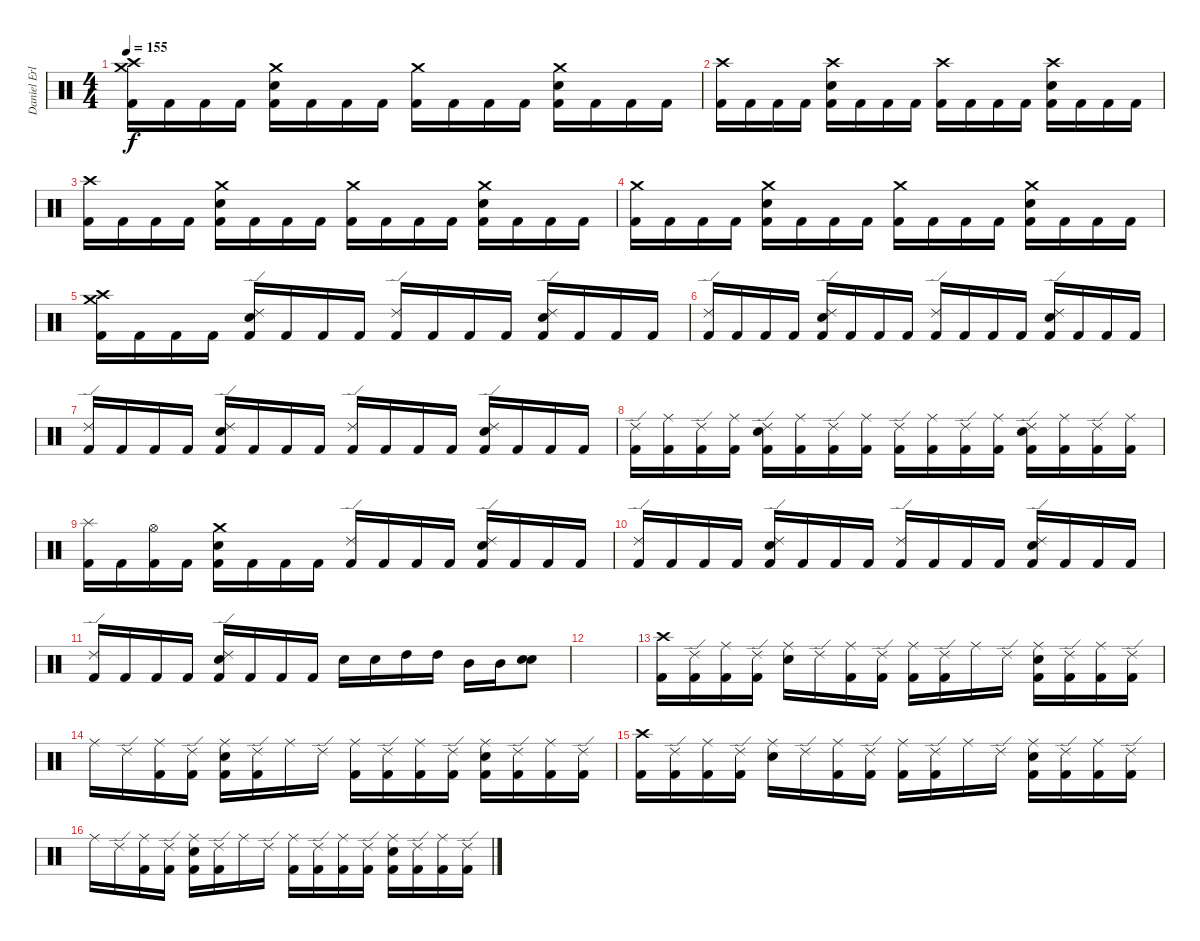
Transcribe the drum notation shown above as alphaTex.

\track ("Daniel Erlandsson" "Daniel Erl") {instrument percussion}
\staff {score}
\articulation defaults
\ts (4 4)
\tempo 155
\clef neutral
\ks c
("Crash high (hit)" "Crash medium (hit)" "Kick (hit) 2").16{dy f} "Kick (hit) 2".16 "Kick (hit) 2".16 "Kick (hit) 2".16 ("Crash medium (hit)" "Snare (hit) 2" "Kick (hit) 2").16 "Kick (hit) 2".16 "Kick (hit) 2".16 "Kick (hit) 2".16 ("Crash medium (hit)" "Kick (hit) 2").16 "Kick (hit) 2".16 "Kick (hit) 2".16 "Kick (hit) 2".16 ("Crash medium (hit)" "Snare (hit) 2" "Kick (hit) 2").16 "Kick (hit) 2".16 "Kick (hit) 2".16 "Kick (hit) 2".16 |
("Crash high (hit)" "Kick (hit) 2").16 "Kick (hit) 2".16 "Kick (hit) 2".16 "Kick (hit) 2".16 ("Crash high (hit)" "Snare (hit) 2" "Kick (hit) 2").16 "Kick (hit) 2".16 "Kick (hit) 2".16 "Kick (hit) 2".16 ("Crash high (hit)" "Kick (hit) 2").16 "Kick (hit) 2".16 "Kick (hit) 2".16 "Kick (hit) 2".16 ("Crash high (hit)" "Snare (hit) 2" "Kick (hit) 2").16 "Kick (hit) 2".16 "Kick (hit) 2".16 "Kick (hit) 2".16 |
("Crash high (hit)" "Kick (hit) 2").16 "Kick (hit) 2".16 "Kick (hit) 2".16 "Kick (hit) 2".16 ("Crash medium (hit)" "Snare (hit) 2" "Kick (hit) 2").16 "Kick (hit) 2".16 "Kick (hit) 2".16 "Kick (hit) 2".16 ("Crash medium (hit)" "Kick (hit) 2").16 "Kick (hit) 2".16 "Kick (hit) 2".16 "Kick (hit) 2".16 ("Crash medium (hit)" "Snare (hit) 2" "Kick (hit) 2").16 "Kick (hit) 2".16 "Kick (hit) 2".16 "Kick (hit) 2".16 |
("Crash medium (hit)" "Kick (hit) 2").16 "Kick (hit) 2".16 "Kick (hit) 2".16 "Kick (hit) 2".16 ("Crash medium (hit)" "Snare (hit) 2" "Kick (hit) 2").16 "Kick (hit) 2".16 "Kick (hit) 2".16 "Kick (hit) 2".16 ("Crash medium (hit)" "Kick (hit) 2").16 "Kick (hit) 2".16 "Kick (hit) 2".16 "Kick (hit) 2".16 ("Crash medium (hit)" "Snare (hit) 2" "Kick (hit) 2").16 "Kick (hit) 2".16 "Kick (hit) 2".16 "Kick (hit) 2".16 |
("Crash high (hit)" "Crash medium (hit)" "Kick (hit) 2").16 "Kick (hit) 2".16 "Kick (hit) 2".16 "Kick (hit) 2".16 ("Ride (edge) 2" "Snare (hit) 2" "Kick (hit) 2").16 "Kick (hit) 2".16 "Kick (hit) 2".16 "Kick (hit) 2".16 ("Ride (edge) 2" "Kick (hit) 2").16 "Kick (hit) 2".16 "Kick (hit) 2".16 "Kick (hit) 2".16 ("Ride (edge) 2" "Snare (hit) 2" "Kick (hit) 2").16 "Kick (hit) 2".16 "Kick (hit) 2".16 "Kick (hit) 2".16 |
("Ride (edge) 2" "Kick (hit) 2").16 "Kick (hit) 2".16 "Kick (hit) 2".16 "Kick (hit) 2".16 ("Ride (edge) 2" "Snare (hit) 2" "Kick (hit) 2").16 "Kick (hit) 2".16 "Kick (hit) 2".16 "Kick (hit) 2".16 ("Ride (edge) 2" "Kick (hit) 2").16 "Kick (hit) 2".16 "Kick (hit) 2".16 "Kick (hit) 2".16 ("Ride (edge) 2" "Snare (hit) 2" "Kick (hit) 2").16 "Kick (hit) 2".16 "Kick (hit) 2".16 "Kick (hit) 2".16 |
("Ride (edge) 2" "Kick (hit) 2").16 "Kick (hit) 2".16 "Kick (hit) 2".16 "Kick (hit) 2".16 ("Ride (edge) 2" "Snare (hit) 2" "Kick (hit) 2").16 "Kick (hit) 2".16 "Kick (hit) 2".16 "Kick (hit) 2".16 ("Ride (edge) 2" "Kick (hit) 2").16 "Kick (hit) 2".16 "Kick (hit) 2".16 "Kick (hit) 2".16 ("Ride (edge) 2" "Snare (hit) 2" "Kick (hit) 2").16 "Kick (hit) 2".16 "Kick (hit) 2".16 "Kick (hit) 2".16 |
("Ride (edge) 2" "Kick (hit) 2").16 ("Ride (middle)" "Kick (hit) 2").16 ("Ride (edge) 2" "Kick (hit) 2").16 ("Ride (middle)" "Kick (hit) 2").16 ("Ride (edge) 2" "Snare (hit) 2" "Kick (hit) 2").16 ("Ride (middle)" "Kick (hit) 2").16 ("Ride (edge) 2" "Kick (hit) 2").16 ("Ride (middle)" "Kick (hit) 2").16 ("Ride (edge) 2" "Kick (hit) 2").16 ("Ride (middle)" "Kick (hit) 2").16 ("Ride (edge) 2" "Kick (hit) 2").16 ("Ride (middle)" "Kick (hit) 2").16 ("Ride (edge) 2" "Snare (hit) 2" "Kick (hit) 2").16 ("Ride (middle)" "Kick (hit) 2").16 ("Ride (edge) 2" "Kick (hit) 2").16 ("Ride (middle)" "Kick (hit) 2").16 |
("Splash (hit)" "Kick (hit) 2").16 "Kick (hit) 2".16 ("Hi-Hat (open)" "Kick (hit) 2").16 "Kick (hit) 2".16 ("Crash medium (hit)" "Snare (hit) 2" "Kick (hit) 2").16 "Kick (hit) 2".16 "Kick (hit) 2".16 "Kick (hit) 2".16 ("Ride (edge) 2" "Kick (hit) 2").16 "Kick (hit) 2".16 "Kick (hit) 2".16 "Kick (hit) 2".16 ("Ride (edge) 2" "Snare (hit) 2" "Kick (hit) 2").16 "Kick (hit) 2".16 "Kick (hit) 2".16 "Kick (hit) 2".16 |
("Ride (edge) 2" "Kick (hit) 2").16 "Kick (hit) 2".16 "Kick (hit) 2".16 "Kick (hit) 2".16 ("Ride (edge) 2" "Snare (hit) 2" "Kick (hit) 2").16 "Kick (hit) 2".16 "Kick (hit) 2".16 "Kick (hit) 2".16 ("Ride (edge) 2" "Kick (hit) 2").16 "Kick (hit) 2".16 "Kick (hit) 2".16 "Kick (hit) 2".16 ("Ride (edge) 2" "Snare (hit) 2" "Kick (hit) 2").16 "Kick (hit) 2".16 "Kick (hit) 2".16 "Kick (hit) 2".16 |
("Ride (edge) 2" "Kick (hit) 2").16 "Kick (hit) 2".16 "Kick (hit) 2".16 "Kick (hit) 2".16 ("Ride (edge) 2" "Snare (hit) 2" "Kick (hit) 2").16 "Kick (hit) 2".16 "Kick (hit) 2".16 "Kick (hit) 2".16 "Snare (hit) 2".16 "Snare (hit) 2".16 "High Tom (hit)".16 "High Tom (hit)".16 "Mid Tom (hit)".16 "Mid Tom (hit)".16 ("Snare (hit) 2" "Snare (hit) 2").8{bu 480} |
|
("Crash high (hit)" "Kick (hit) 2").16 ("Ride (edge) 2" "Kick (hit) 2").16 ("Ride (middle)" "Kick (hit) 2").16 ("Ride (edge) 2" "Kick (hit) 2").16 ("Ride (middle)" "Snare (hit) 2").16 "Ride (edge) 2".16 ("Ride (middle)" "Kick (hit) 2").16 ("Ride (edge) 2" "Kick (hit) 2").16 ("Ride (middle)" "Kick (hit) 2").16 ("Ride (edge) 2" "Kick (hit) 2").16 "Ride (middle)".16 "Ride (edge) 2".16 ("Ride (middle)" "Snare (hit) 2" "Kick (hit) 2").16 ("Ride (edge) 2" "Kick (hit) 2").16 ("Ride (middle)" "Kick (hit) 2").16 ("Ride (edge) 2" "Kick (hit) 2").16 |
"Ride (middle)".16 "Ride (edge) 2".16 ("Ride (middle)" "Kick (hit) 2").16 ("Ride (edge) 2" "Kick (hit) 2").16 ("Ride (middle)" "Snare (hit) 2" "Kick (hit) 2").16 ("Ride (edge) 2" "Kick (hit) 2").16 "Ride (middle)".16 "Ride (edge) 2".16 ("Ride (middle)" "Kick (hit) 2").16 ("Ride (edge) 2" "Kick (hit) 2").16 ("Ride (middle)" "Kick (hit) 2").16 ("Ride (edge) 2" "Kick (hit) 2").16 ("Ride (middle)" "Snare (hit) 2" "Kick (hit) 2").16 ("Ride (edge) 2" "Kick (hit) 2").16 ("Ride (middle)" "Kick (hit) 2").16 ("Ride (edge) 2" "Kick (hit) 2").16 |
("Crash high (hit)" "Kick (hit) 2").16 ("Ride (edge) 2" "Kick (hit) 2").16 ("Ride (middle)" "Kick (hit) 2").16 ("Ride (edge) 2" "Kick (hit) 2").16 ("Ride (middle)" "Snare (hit) 2").16 "Ride (edge) 2".16 ("Ride (middle)" "Kick (hit) 2").16 ("Ride (edge) 2" "Kick (hit) 2").16 ("Ride (middle)" "Kick (hit) 2").16 ("Ride (edge) 2" "Kick (hit) 2").16 "Ride (middle)".16 "Ride (edge) 2".16 ("Ride (middle)" "Snare (hit) 2" "Kick (hit) 2").16 ("Ride (edge) 2" "Kick (hit) 2").16 ("Ride (middle)" "Kick (hit) 2").16 ("Ride (edge) 2" "Kick (hit) 2").16 |
"Ride (middle)".16 "Ride (edge) 2".16 ("Ride (middle)" "Kick (hit) 2").16 ("Ride (edge) 2" "Kick (hit) 2").16 ("Ride (middle)" "Snare (hit) 2" "Kick (hit) 2").16 ("Ride (edge) 2" "Kick (hit) 2").16 "Ride (middle)".16 "Ride (edge) 2".16 ("Ride (middle)" "Kick (hit) 2").16 ("Ride (edge) 2" "Kick (hit) 2").16 ("Ride (middle)" "Kick (hit) 2").16 ("Ride (edge) 2" "Kick (hit) 2").16 ("Ride (middle)" "Snare (hit) 2" "Kick (hit) 2").16 ("Ride (edge) 2" "Kick (hit) 2").16 ("Ride (middle)" "Kick (hit) 2").16 ("Ride (edge) 2" "Kick (hit) 2").16
